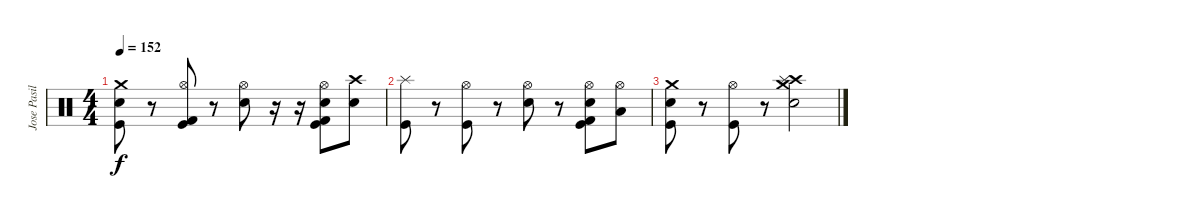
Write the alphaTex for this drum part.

\track ("Jose Pasillas" "Jose Pasil") {instrument percussion}
\staff {score}
\articulation defaults
\ts (4 4)
\tempo 152
\clef neutral
\ks c
("Crash medium (hit)" "Electric Snare (hit)" "Kick (hit)").8{dy f} r.8 ("Hi-Hat (open)" "Kick (hit) 2" "Kick (hit)").8 r.8 ("Hi-Hat (open)" "Electric Snare (hit)").8 r.16 r.16 ("Hi-Hat (open)" "Electric Snare (hit)" "Kick (hit) 2" "Kick (hit)").8 ("Crash high (hit)" "Electric Snare (hit)").8 |
("Splash (hit)" "Kick (hit)").8 r.8 ("Hi-Hat (open)" "Kick (hit)").8 r.8 ("Hi-Hat (open)" "Electric Snare (hit)").8 r.8 ("Hi-Hat (open)" "Electric Snare (hit)" "Kick (hit) 2" "Kick (hit)").8 ("Hi-Hat (open)" "Low Tom (hit)").8 |
("Crash medium (hit)" "Electric Snare (hit)" "Kick (hit)").8 r.8 ("Hi-Hat (open)" "Kick (hit)").8 r.8 ("Electric Snare (hit)" "Crash high (hit)" "Splash (hit)" "Crash medium (hit)").2
